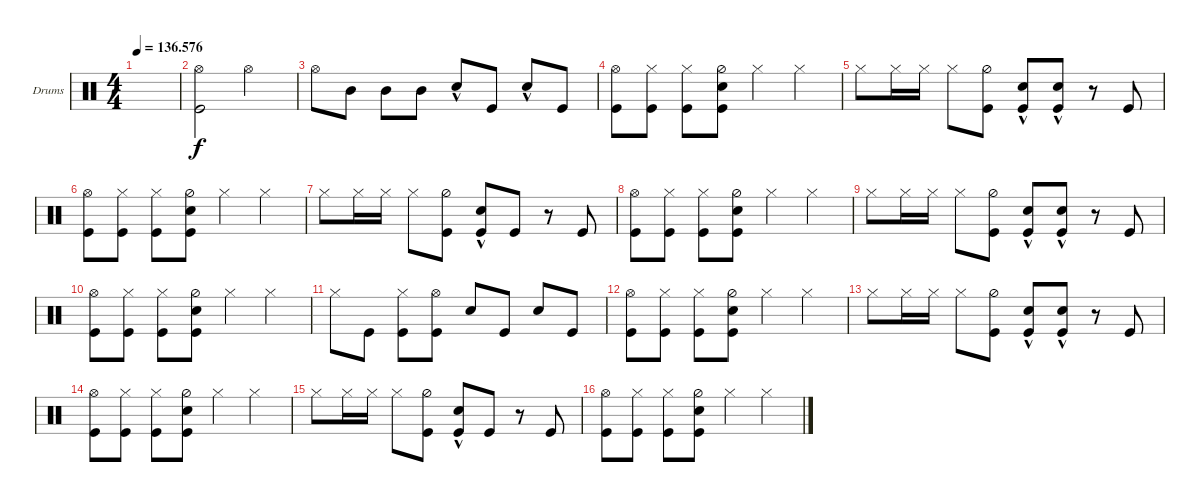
\bracketExtendMode groupsimilarinstruments
\firstSystemTrackNameOrientation horizontal
\otherSystemsTrackNameOrientation horizontal
\track ("Drumkit" "Drums") {instrument percussion}
\staff {score}
\articulation defaults
\ts (4 4)
\tempo
136.576
\accidentals auto
\clef neutral
\ottava regular
\simile none
\ks c
|
("Kick (hit)" "Hi-Hat (open)").2 "Hi-Hat (open)".2 |
"Hi-Hat (open)".8 "Mid Tom (hit)".8 "Mid Tom (hit)".8 "Mid Tom (hit)".8 "Snare (hit) 2"{hac}.8 "Kick (hit)".8 "Snare (hit) 2"{hac}.8 "Kick (hit)".8 |
("Kick (hit)" "Hi-Hat (open)").8 ("Kick (hit)" "Hi-Hat (closed)").8 ("Kick (hit)" "Hi-Hat (closed)").8 ("Kick (hit)" "Snare (hit) 2" "Hi-Hat (half)").8 "Hi-Hat (closed)".4 "Hi-Hat (closed)".4 |
"Hi-Hat (closed)".8 "Hi-Hat (closed)".16 "Hi-Hat (closed)".16 "Hi-Hat (closed)".8 ("Hi-Hat (half)" "Kick (hit)").8 ("Kick (hit)" "Snare (hit) 2"{hac}).8 ("Kick (hit)" "Snare (hit) 2"{hac}).8 r.8 "Kick (hit)".8 |
("Kick (hit)" "Hi-Hat (open)").8 ("Kick (hit)" "Hi-Hat (closed)").8 ("Kick (hit)" "Hi-Hat (closed)").8 ("Kick (hit)" "Snare (hit) 2" "Hi-Hat (half)").8 "Hi-Hat (closed)".4 "Hi-Hat (closed)".4 |
"Hi-Hat (closed)".8 "Hi-Hat (closed)".16 "Hi-Hat (closed)".16 "Hi-Hat (closed)".8 ("Hi-Hat (half)" "Kick (hit)").8 ("Kick (hit)" "Snare (hit) 2"{hac}).8 "Kick (hit)".8 r.8 "Kick (hit)".8 |
("Kick (hit)" "Hi-Hat (open)").8 ("Kick (hit)" "Hi-Hat (closed)").8 ("Kick (hit)" "Hi-Hat (closed)").8 ("Kick (hit)" "Snare (hit) 2" "Hi-Hat (half)").8 "Hi-Hat (closed)".4 "Hi-Hat (closed)".4 |
"Hi-Hat (closed)".8 "Hi-Hat (closed)".16 "Hi-Hat (closed)".16 "Hi-Hat (closed)".8 ("Hi-Hat (half)" "Kick (hit)").8 ("Kick (hit)" "Snare (hit) 2"{hac}).8 ("Kick (hit)" "Snare (hit) 2"{hac}).8 r.8 "Kick (hit)".8 |
("Kick (hit)" "Hi-Hat (open)").8 ("Kick (hit)" "Hi-Hat (closed)").8 ("Kick (hit)" "Hi-Hat (closed)").8 ("Kick (hit)" "Snare (hit) 2" "Hi-Hat (half)").8 "Hi-Hat (closed)".4 "Hi-Hat (closed)".4 |
"Hi-Hat (closed)".8 "Kick (hit)".8 ("Hi-Hat (closed)" "Kick (hit)").8 ("Hi-Hat (open)" "Kick (hit)").8 "Snare (hit) 2".8 "Kick (hit)".8 "Snare (hit) 2".8 "Kick (hit)".8 |
("Kick (hit)" "Hi-Hat (open)").8 ("Kick (hit)" "Hi-Hat (closed)").8 ("Kick (hit)" "Hi-Hat (closed)").8 ("Kick (hit)" "Snare (hit) 2" "Hi-Hat (half)").8 "Hi-Hat (closed)".4 "Hi-Hat (closed)".4 |
"Hi-Hat (closed)".8 "Hi-Hat (closed)".16 "Hi-Hat (closed)".16 "Hi-Hat (closed)".8 ("Hi-Hat (half)" "Kick (hit)").8 ("Kick (hit)" "Snare (hit) 2"{hac}).8 ("Kick (hit)" "Snare (hit) 2"{hac}).8 r.8 "Kick (hit)".8 |
("Kick (hit)" "Hi-Hat (open)").8 ("Kick (hit)" "Hi-Hat (closed)").8 ("Kick (hit)" "Hi-Hat (closed)").8 ("Kick (hit)" "Snare (hit) 2" "Hi-Hat (half)").8 "Hi-Hat (closed)".4 "Hi-Hat (closed)".4 |
"Hi-Hat (closed)".8 "Hi-Hat (closed)".16 "Hi-Hat (closed)".16 "Hi-Hat (closed)".8 ("Hi-Hat (half)" "Kick (hit)").8 ("Kick (hit)" "Snare (hit) 2"{hac}).8 "Kick (hit)".8 r.8 "Kick (hit)".8 |
("Kick (hit)" "Hi-Hat (open)").8 ("Kick (hit)" "Hi-Hat (closed)").8 ("Kick (hit)" "Hi-Hat (closed)").8 ("Kick (hit)" "Snare (hit) 2" "Hi-Hat (half)").8 "Hi-Hat (closed)".4 "Hi-Hat (closed)".4
